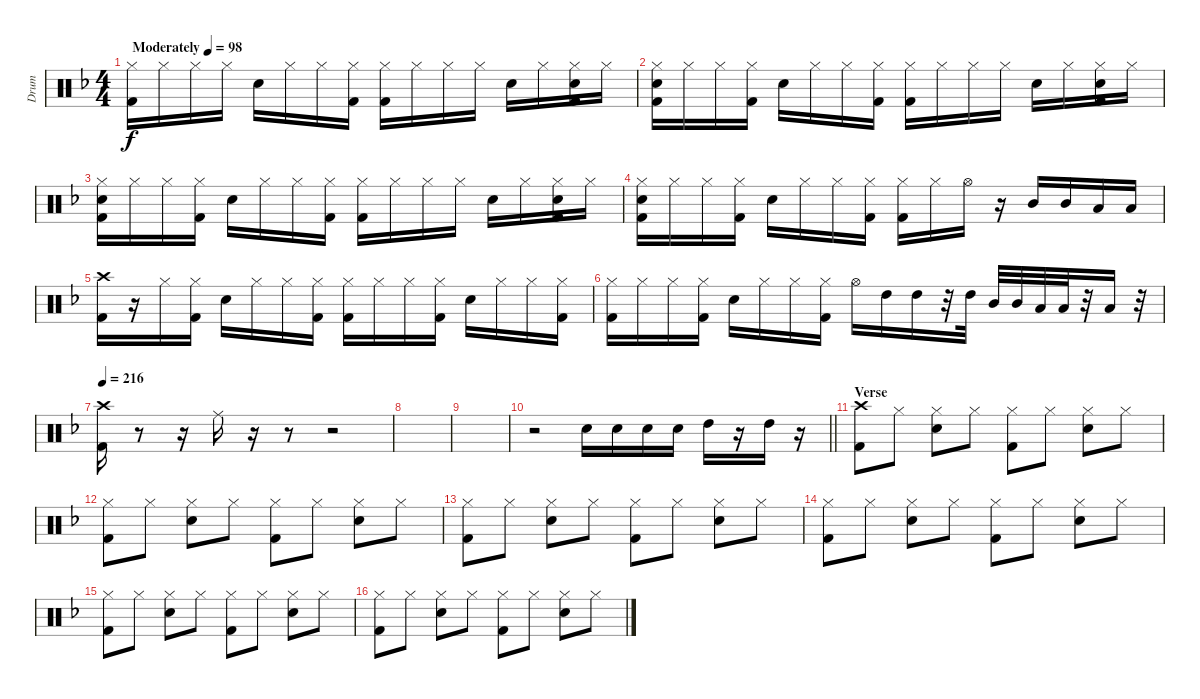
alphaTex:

\track ("Drum" "Drum") {instrument percussion}
\staff {score}
\articulation defaults
\ts (4 4)
\tempo (98 "Moderately")
\clef neutral
\ks f
("Hi-Hat (closed)" "Kick (hit) 2").16{dy f} "Hi-Hat (closed)".16 "Hi-Hat (closed)".16 "Hi-Hat (closed)".16 "Snare (hit) 2".16 "Hi-Hat (closed)".16 "Hi-Hat (closed)".16 ("Hi-Hat (closed)" "Kick (hit) 2").16 ("Hi-Hat (closed)" "Kick (hit) 2").16 "Hi-Hat (closed)".16 "Hi-Hat (closed)".16 "Hi-Hat (closed)".16 "Snare (hit) 2".16 "Hi-Hat (closed)".16 ("Hi-Hat (closed)" "Snare (hit) 2" "Kick (hit) 2").16 "Hi-Hat (closed)".16 |
("Hi-Hat (closed)" "Snare (hit) 2" "Kick (hit) 2").16 "Hi-Hat (closed)".16 "Hi-Hat (closed)".16 ("Hi-Hat (closed)" "Kick (hit) 2").16 "Snare (hit) 2".16 "Hi-Hat (closed)".16 "Hi-Hat (closed)".16 ("Hi-Hat (closed)" "Kick (hit) 2").16 ("Hi-Hat (closed)" "Kick (hit) 2").16 "Hi-Hat (closed)".16 "Hi-Hat (closed)".16 "Hi-Hat (closed)".16 "Snare (hit) 2".16 "Hi-Hat (closed)".16 ("Hi-Hat (closed)" "Snare (hit) 2" "Kick (hit) 2").16 "Hi-Hat (closed)".16 |
("Hi-Hat (closed)" "Snare (hit) 2" "Kick (hit) 2").16 "Hi-Hat (closed)".16 "Hi-Hat (closed)".16 ("Hi-Hat (closed)" "Kick (hit) 2").16 "Snare (hit) 2".16 "Hi-Hat (closed)".16 "Hi-Hat (closed)".16 ("Hi-Hat (closed)" "Kick (hit) 2").16 ("Hi-Hat (closed)" "Kick (hit) 2").16 "Hi-Hat (closed)".16 "Hi-Hat (closed)".16 "Hi-Hat (closed)".16 "Snare (hit) 2".16 "Hi-Hat (closed)".16 ("Hi-Hat (closed)" "Snare (hit) 2" "Kick (hit) 2").16 "Hi-Hat (closed)".16 |
("Hi-Hat (closed)" "Snare (hit) 2" "Kick (hit) 2").16 "Hi-Hat (closed)".16 "Hi-Hat (closed)".16 ("Hi-Hat (closed)" "Kick (hit) 2").16 "Snare (hit) 2".16 "Hi-Hat (closed)".16 "Hi-Hat (closed)".16 ("Hi-Hat (closed)" "Kick (hit) 2").16 ("Hi-Hat (closed)" "Kick (hit) 2").16 "Hi-Hat (closed)".16 "Hi-Hat (open)".16 r.16 "Mid Tom (hit)".16 "Mid Tom (hit)".16 "Low Floor Tom (hit)".16 "Low Floor Tom (hit)".16 |
("Crash high (hit)" "Kick (hit) 2").16 r.16 "Hi-Hat (closed)".16 ("Hi-Hat (closed)" "Kick (hit) 2").16 "Snare (hit) 2".16 "Hi-Hat (closed)".16 "Hi-Hat (closed)".16 ("Hi-Hat (closed)" "Kick (hit) 2").16 ("Hi-Hat (closed)" "Kick (hit) 2").16 "Hi-Hat (closed)".16 "Hi-Hat (closed)".16 ("Hi-Hat (closed)" "Kick (hit) 2").16 "Snare (hit) 2".16 "Hi-Hat (closed)".16 "Hi-Hat (closed)".16 ("Hi-Hat (closed)" "Kick (hit) 2").16 |
("Hi-Hat (closed)" "Kick (hit) 2").16 "Hi-Hat (closed)".16 "Hi-Hat (closed)".16 ("Hi-Hat (closed)" "Kick (hit) 2").16 "Snare (hit) 2".16 "Hi-Hat (closed)".16 "Hi-Hat (closed)".16 ("Hi-Hat (closed)" "Kick (hit) 2").16 "Hi-Hat (open)".16 "High Tom (hit)".16 "High Tom (hit)".16 r.32 "High Tom (hit)".32 "Mid Tom (hit)".32 "Mid Tom (hit)".32 "Low Floor Tom (hit)".32 "Low Floor Tom (hit)".32 r.32 "Low Floor Tom (hit)".16 r.32 |
\tempo 216
("Crash high (hit)" "Kick (hit) 2").16 r.8 r.16 "Ride (middle)".16 r.16 r.8 r.2 |
|
|
\barLineRight lightlight
r.2 "Snare (hit) 2".16 "Snare (hit) 2".16 "Snare (hit) 2".16 "Snare (hit) 2".16 "High Tom (hit)".16 r.16 "High Tom (hit)".16 r.16 |
\section ("" "Verse")
("Crash high (hit)" "Kick (hit) 2").8 "Hi-Hat (closed)".8 ("Hi-Hat (closed)" "Snare (hit) 2").8 "Hi-Hat (closed)".8 ("Hi-Hat (closed)" "Kick (hit) 2").8 "Hi-Hat (closed)".8 ("Hi-Hat (closed)" "Snare (hit) 2").8 "Hi-Hat (closed)".8 |
("Hi-Hat (closed)" "Kick (hit) 2").8 "Hi-Hat (closed)".8 ("Hi-Hat (closed)" "Snare (hit) 2").8 "Hi-Hat (closed)".8 ("Hi-Hat (closed)" "Kick (hit) 2").8 "Hi-Hat (closed)".8 ("Hi-Hat (closed)" "Snare (hit) 2").8 "Hi-Hat (closed)".8 |
("Hi-Hat (closed)" "Kick (hit) 2").8 "Hi-Hat (closed)".8 ("Hi-Hat (closed)" "Snare (hit) 2").8 "Hi-Hat (closed)".8 ("Hi-Hat (closed)" "Kick (hit) 2").8 "Hi-Hat (closed)".8 ("Hi-Hat (closed)" "Snare (hit) 2").8 "Hi-Hat (closed)".8 |
("Hi-Hat (closed)" "Kick (hit) 2").8 "Hi-Hat (closed)".8 ("Hi-Hat (closed)" "Snare (hit) 2").8 "Hi-Hat (closed)".8 ("Hi-Hat (closed)" "Kick (hit) 2").8 "Hi-Hat (closed)".8 ("Hi-Hat (closed)" "Snare (hit) 2").8 "Hi-Hat (closed)".8 |
("Hi-Hat (closed)" "Kick (hit) 2").8 "Hi-Hat (closed)".8 ("Hi-Hat (closed)" "Snare (hit) 2").8 "Hi-Hat (closed)".8 ("Hi-Hat (closed)" "Kick (hit) 2").8 "Hi-Hat (closed)".8 ("Hi-Hat (closed)" "Snare (hit) 2").8 "Hi-Hat (closed)".8 |
("Hi-Hat (closed)" "Kick (hit) 2").8 "Hi-Hat (closed)".8 ("Hi-Hat (closed)" "Snare (hit) 2").8 "Hi-Hat (closed)".8 ("Hi-Hat (closed)" "Kick (hit) 2").8 "Hi-Hat (closed)".8 ("Hi-Hat (closed)" "Snare (hit) 2").8 "Hi-Hat (closed)".8
